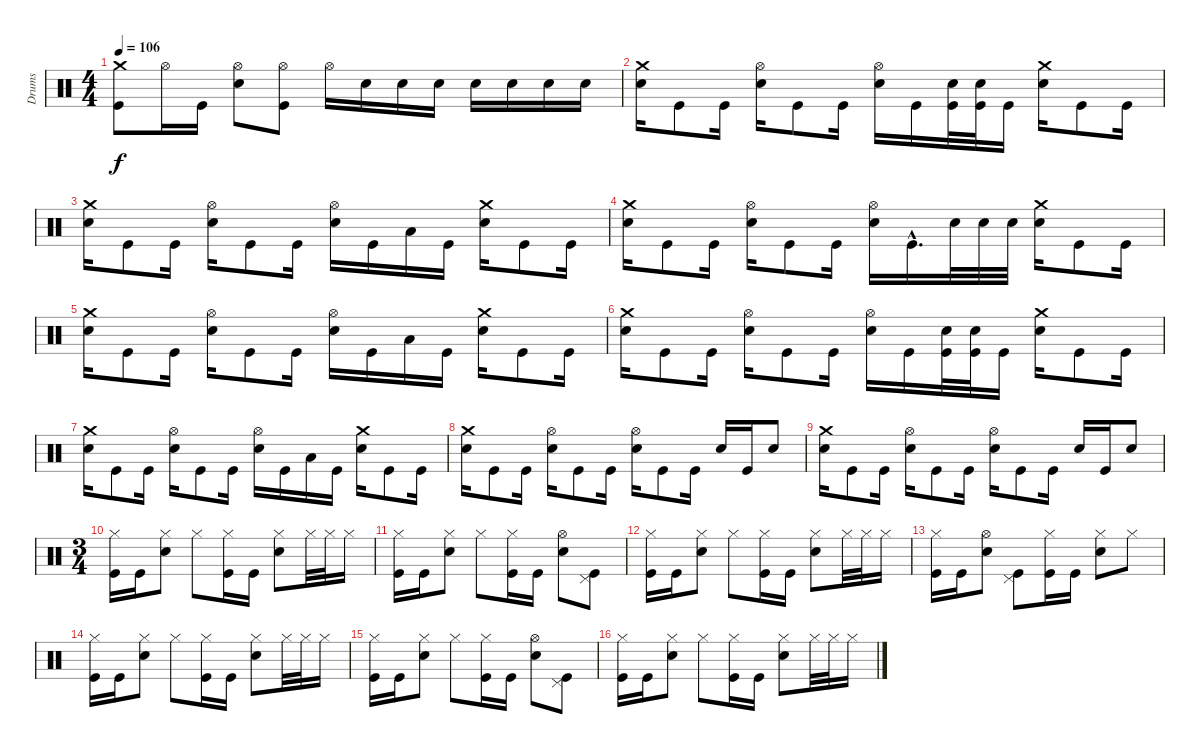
\track ("Drums" "Drums") {instrument percussion}
\staff {score}
\articulation defaults
\ts (4 4)
\tempo 106
\clef neutral
\ks c
("Crash medium (hit)" "Kick (hit)").8{dy f} "Hi-Hat (open)".16 "Kick (hit)".16 ("Hi-Hat (open)" "Snare (hit) 2").8 ("Hi-Hat (open)" "Kick (hit)").8 "Hi-Hat (open)".16 "Snare (hit) 2".16 "Snare (hit) 2".16 "Snare (hit) 2".16 "Snare (hit) 2".16 "Snare (hit) 2".16 "Snare (hit) 2".16 "Snare (hit) 2".16 |
("Crash medium (hit)" "Snare (hit) 2").16 "Kick (hit)".8 "Kick (hit)".16 ("Hi-Hat (open)" "Snare (hit) 2").16 "Kick (hit)".8 "Kick (hit)".16 ("Hi-Hat (open)" "Snare (hit) 2").16 "Kick (hit)".16 ("Snare (hit) 2" "Kick (hit)").32 ("Snare (hit) 2" "Kick (hit)").32 "Kick (hit)".16 ("Crash medium (hit)" "Snare (hit) 2").16 "Kick (hit)".8 "Kick (hit)".16 |
("Crash medium (hit)" "Snare (hit) 2").16 "Kick (hit)".8 "Kick (hit)".16 ("Hi-Hat (open)" "Snare (hit) 2").16 "Kick (hit)".8 "Kick (hit)".16 ("Hi-Hat (open)" "Snare (hit) 2").16 "Kick (hit)".16 "Low Tom (hit)".16 "Kick (hit)".16 ("Crash medium (hit)" "Snare (hit) 2").16 "Kick (hit)".8 "Kick (hit)".16 |
("Crash medium (hit)" "Snare (hit) 2").16 "Kick (hit)".8 "Kick (hit)".16 ("Hi-Hat (open)" "Snare (hit) 2").16 "Kick (hit)".8 "Kick (hit)".16 ("Hi-Hat (open)" "Snare (hit) 2").16 "Kick (hit)"{hac}.16{d} "Snare (hit) 2".32 "Snare (hit) 2".32 "Snare (hit) 2".32 ("Crash medium (hit)" "Snare (hit) 2").16 "Kick (hit)".8 "Kick (hit)".16 |
("Crash medium (hit)" "Snare (hit) 2").16 "Kick (hit)".8 "Kick (hit)".16 ("Hi-Hat (open)" "Snare (hit) 2").16 "Kick (hit)".8 "Kick (hit)".16 ("Hi-Hat (open)" "Snare (hit) 2").16 "Kick (hit)".16 "Low Tom (hit)".16 "Kick (hit)".16 ("Crash medium (hit)" "Snare (hit) 2").16 "Kick (hit)".8 "Kick (hit)".16 |
("Crash medium (hit)" "Snare (hit) 2").16 "Kick (hit)".8 "Kick (hit)".16 ("Hi-Hat (open)" "Snare (hit) 2").16 "Kick (hit)".8 "Kick (hit)".16 ("Hi-Hat (open)" "Snare (hit) 2").16 "Kick (hit)".16 ("Snare (hit) 2" "Kick (hit)").32 ("Snare (hit) 2" "Kick (hit)").32 "Kick (hit)".16 ("Crash medium (hit)" "Snare (hit) 2").16 "Kick (hit)".8 "Kick (hit)".16 |
("Crash medium (hit)" "Snare (hit) 2").16 "Kick (hit)".8 "Kick (hit)".16 ("Hi-Hat (open)" "Snare (hit) 2").16 "Kick (hit)".8 "Kick (hit)".16 ("Hi-Hat (open)" "Snare (hit) 2").16 "Kick (hit)".16 "Low Tom (hit)".16 "Kick (hit)".16 ("Crash medium (hit)" "Snare (hit) 2").16 "Kick (hit)".8 "Kick (hit)".16 |
("Crash medium (hit)" "Snare (hit) 2").16 "Kick (hit)".8 "Kick (hit)".16 ("Hi-Hat (open)" "Snare (hit) 2").16 "Kick (hit)".8 "Kick (hit)".16 ("Hi-Hat (open)" "Snare (hit) 2").16 "Kick (hit)".8 "Kick (hit)".16 "Snare (hit) 2".16 "Kick (hit)".16 "Snare (hit) 2".8 |
("Crash medium (hit)" "Snare (hit) 2").16 "Kick (hit)".8 "Kick (hit)".16 ("Hi-Hat (open)" "Snare (hit) 2").16 "Kick (hit)".8 "Kick (hit)".16 ("Hi-Hat (open)" "Snare (hit) 2").16 "Kick (hit)".8 "Kick (hit)".16 "Snare (hit) 2".16 "Kick (hit)".16 "Snare (hit) 2".8 |
\ts (3 4)
("Hi-Hat (closed)" "Kick (hit)").16 "Kick (hit)".16 ("Hi-Hat (closed)" "Snare (hit) 2").8 "Hi-Hat (closed)".8 ("Hi-Hat (closed)" "Kick (hit)").16 "Kick (hit)".16 ("Hi-Hat (closed)" "Snare (hit) 2").8 "Hi-Hat (closed)".32 "Hi-Hat (closed)".32 "Hi-Hat (closed)".16 |
("Hi-Hat (closed)" "Kick (hit)").16 "Kick (hit)".16 ("Hi-Hat (closed)" "Snare (hit) 2").8 "Hi-Hat (closed)".8 ("Hi-Hat (closed)" "Kick (hit)").16 "Kick (hit)".16 ("Hi-Hat (open)" "Snare (hit) 2").8 ("Pedal Hi-Hat (hit)" "Kick (hit)").8 |
("Hi-Hat (closed)" "Kick (hit)").16 "Kick (hit)".16 ("Hi-Hat (closed)" "Snare (hit) 2").8 "Hi-Hat (closed)".8 ("Hi-Hat (closed)" "Kick (hit)").16 "Kick (hit)".16 ("Hi-Hat (closed)" "Snare (hit) 2").8 "Hi-Hat (closed)".32 "Hi-Hat (closed)".32 "Hi-Hat (closed)".16 |
("Hi-Hat (closed)" "Kick (hit)").16 "Kick (hit)".16 ("Hi-Hat (open)" "Snare (hit) 2").8 ("Pedal Hi-Hat (hit)" "Kick (hit)").8 ("Hi-Hat (closed)" "Kick (hit)").16 "Kick (hit)".16 ("Hi-Hat (closed)" "Snare (hit) 2").8 "Hi-Hat (closed)".8 |
("Hi-Hat (closed)" "Kick (hit)").16 "Kick (hit)".16 ("Hi-Hat (closed)" "Snare (hit) 2").8 "Hi-Hat (closed)".8 ("Hi-Hat (closed)" "Kick (hit)").16 "Kick (hit)".16 ("Hi-Hat (closed)" "Snare (hit) 2").8 "Hi-Hat (closed)".32 "Hi-Hat (closed)".32 "Hi-Hat (closed)".16 |
("Hi-Hat (closed)" "Kick (hit)").16 "Kick (hit)".16 ("Hi-Hat (closed)" "Snare (hit) 2").8 "Hi-Hat (closed)".8 ("Hi-Hat (closed)" "Kick (hit)").16 "Kick (hit)".16 ("Hi-Hat (open)" "Snare (hit) 2").8 ("Pedal Hi-Hat (hit)" "Kick (hit)").8 |
("Hi-Hat (closed)" "Kick (hit)").16 "Kick (hit)".16 ("Hi-Hat (closed)" "Snare (hit) 2").8 "Hi-Hat (closed)".8 ("Hi-Hat (closed)" "Kick (hit)").16 "Kick (hit)".16 ("Hi-Hat (closed)" "Snare (hit) 2").8 "Hi-Hat (closed)".32 "Hi-Hat (closed)".32 "Hi-Hat (closed)".16
